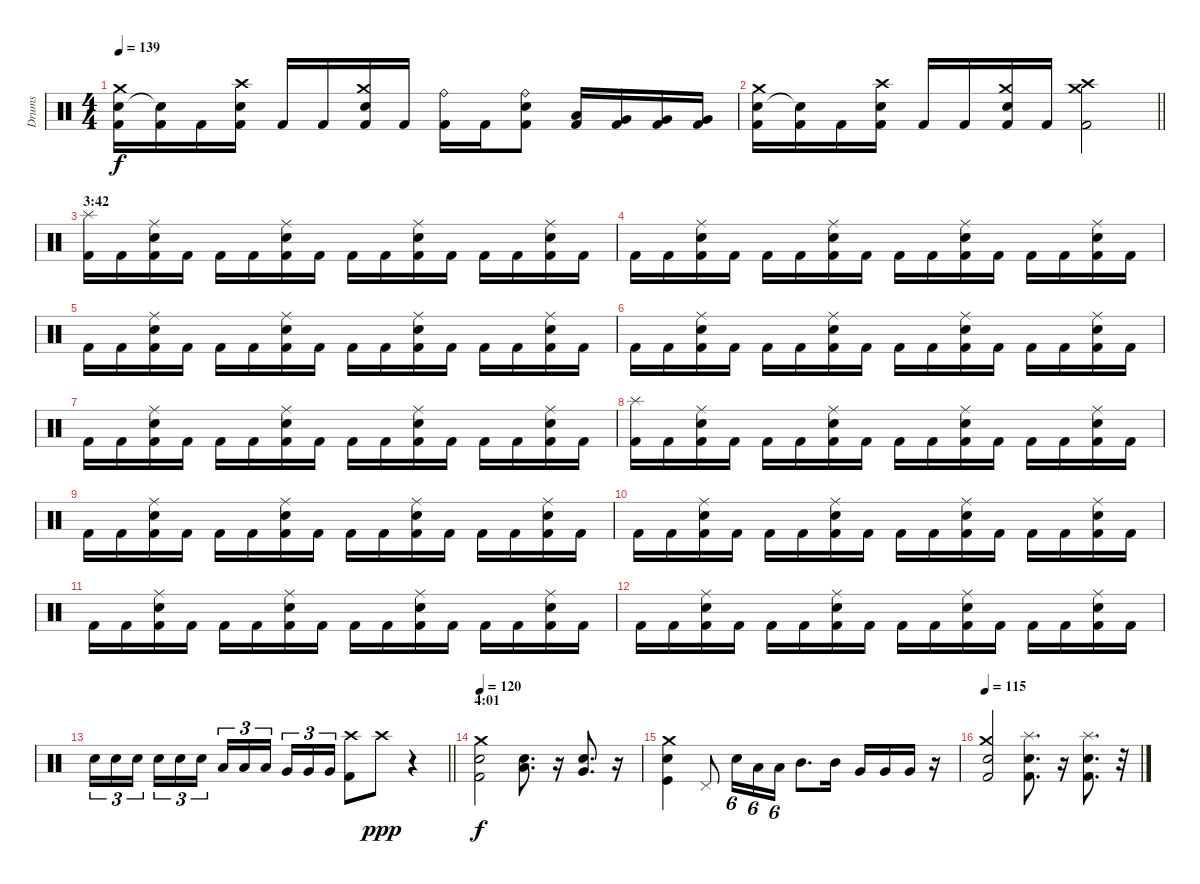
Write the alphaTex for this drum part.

\track ("Drums" "Drums") {instrument percussion}
\staff {score}
\articulation defaults
\ts (4 4)
\tempo 139
\clef neutral
\ks c
("Electric Snare (hit)" "Crash medium (hit)" "Kick (hit) 2").16{dy f} ("Snare (hit)"{t} "Kick (hit) 2").16 "Kick (hit) 2".16 ("Electric Snare (hit)" "Crash high (hit)" "Kick (hit) 2").16 "Kick (hit) 2".16 "Kick (hit) 2".16 ("Electric Snare (hit)" "Crash medium (hit)" "Kick (hit) 2").16 "Kick (hit) 2".16 ("Ride (bell)" "Kick (hit) 2").16 "Kick (hit) 2".16 ("Electric Snare (hit)" "Ride (bell)" "Kick (hit) 2").8 ("Low Tom (hit)" "Kick (hit) 2").16 ("Very Low Tom (hit)" "Kick (hit) 2").16 ("Very Low Tom (hit)" "Kick (hit) 2").16 ("Very Low Tom (hit)" "Kick (hit) 2").16 |
\barLineRight lightlight
("Electric Snare (hit)" "Crash medium (hit)" "Kick (hit) 2").16 ("Snare (hit)"{t} "Kick (hit) 2").16 "Kick (hit) 2".16 ("Electric Snare (hit)" "Crash high (hit)" "Kick (hit) 2").16 "Kick (hit) 2".16 "Kick (hit) 2".16 ("Electric Snare (hit)" "Crash medium (hit)" "Kick (hit) 2").16 "Kick (hit) 2".16 ("Crash high (hit)" "Crash medium (hit)" "Kick (hit) 2").2 |
\section ("" "3:42")
("Splash (hit)" "Kick (hit) 2").16 "Kick (hit) 2".16 ("Ride (middle)" "Electric Snare (hit)" "Kick (hit) 2").16 "Kick (hit) 2".16 "Kick (hit) 2".16 "Kick (hit) 2".16 ("Ride (middle)" "Electric Snare (hit)" "Kick (hit) 2").16 "Kick (hit) 2".16 "Kick (hit) 2".16 "Kick (hit) 2".16 ("Ride (middle)" "Electric Snare (hit)" "Kick (hit) 2").16 "Kick (hit) 2".16 "Kick (hit) 2".16 "Kick (hit) 2".16 ("Ride (middle)" "Electric Snare (hit)" "Kick (hit) 2").16 "Kick (hit) 2".16 |
"Kick (hit) 2".16 "Kick (hit) 2".16 ("Ride (middle)" "Electric Snare (hit)" "Kick (hit) 2").16 "Kick (hit) 2".16 "Kick (hit) 2".16 "Kick (hit) 2".16 ("Ride (middle)" "Electric Snare (hit)" "Kick (hit) 2").16 "Kick (hit) 2".16 "Kick (hit) 2".16 "Kick (hit) 2".16 ("Ride (middle)" "Electric Snare (hit)" "Kick (hit) 2").16 "Kick (hit) 2".16 "Kick (hit) 2".16 "Kick (hit) 2".16 ("Ride (middle)" "Electric Snare (hit)" "Kick (hit) 2").16 "Kick (hit) 2".16 |
"Kick (hit) 2".16 "Kick (hit) 2".16 ("Ride (middle)" "Electric Snare (hit)" "Kick (hit) 2").16 "Kick (hit) 2".16 "Kick (hit) 2".16 "Kick (hit) 2".16 ("Ride (middle)" "Electric Snare (hit)" "Kick (hit) 2").16 "Kick (hit) 2".16 "Kick (hit) 2".16 "Kick (hit) 2".16 ("Ride (middle)" "Electric Snare (hit)" "Kick (hit) 2").16 "Kick (hit) 2".16 "Kick (hit) 2".16 "Kick (hit) 2".16 ("Ride (middle)" "Electric Snare (hit)" "Kick (hit) 2").16 "Kick (hit) 2".16 |
"Kick (hit) 2".16 "Kick (hit) 2".16 ("Ride (middle)" "Electric Snare (hit)" "Kick (hit) 2").16 "Kick (hit) 2".16 "Kick (hit) 2".16 "Kick (hit) 2".16 ("Ride (middle)" "Electric Snare (hit)" "Kick (hit) 2").16 "Kick (hit) 2".16 "Kick (hit) 2".16 "Kick (hit) 2".16 ("Ride (middle)" "Electric Snare (hit)" "Kick (hit) 2").16 "Kick (hit) 2".16 "Kick (hit) 2".16 "Kick (hit) 2".16 ("Ride (middle)" "Electric Snare (hit)" "Kick (hit) 2").16 "Kick (hit) 2".16 |
"Kick (hit) 2".16 "Kick (hit) 2".16 ("Ride (middle)" "Electric Snare (hit)" "Kick (hit) 2").16 "Kick (hit) 2".16 "Kick (hit) 2".16 "Kick (hit) 2".16 ("Ride (middle)" "Electric Snare (hit)" "Kick (hit) 2").16 "Kick (hit) 2".16 "Kick (hit) 2".16 "Kick (hit) 2".16 ("Ride (middle)" "Electric Snare (hit)" "Kick (hit) 2").16 "Kick (hit) 2".16 "Kick (hit) 2".16 "Kick (hit) 2".16 ("Ride (middle)" "Electric Snare (hit)" "Kick (hit) 2").16 "Kick (hit) 2".16 |
("Splash (hit)" "Kick (hit) 2").16 "Kick (hit) 2".16 ("Ride (middle)" "Electric Snare (hit)" "Kick (hit) 2").16 "Kick (hit) 2".16 "Kick (hit) 2".16 "Kick (hit) 2".16 ("Ride (middle)" "Electric Snare (hit)" "Kick (hit) 2").16 "Kick (hit) 2".16 "Kick (hit) 2".16 "Kick (hit) 2".16 ("Ride (middle)" "Electric Snare (hit)" "Kick (hit) 2").16 "Kick (hit) 2".16 "Kick (hit) 2".16 "Kick (hit) 2".16 ("Ride (middle)" "Electric Snare (hit)" "Kick (hit) 2").16 "Kick (hit) 2".16 |
"Kick (hit) 2".16 "Kick (hit) 2".16 ("Ride (middle)" "Electric Snare (hit)" "Kick (hit) 2").16 "Kick (hit) 2".16 "Kick (hit) 2".16 "Kick (hit) 2".16 ("Ride (middle)" "Electric Snare (hit)" "Kick (hit) 2").16 "Kick (hit) 2".16 "Kick (hit) 2".16 "Kick (hit) 2".16 ("Ride (middle)" "Electric Snare (hit)" "Kick (hit) 2").16 "Kick (hit) 2".16 "Kick (hit) 2".16 "Kick (hit) 2".16 ("Ride (middle)" "Electric Snare (hit)" "Kick (hit) 2").16 "Kick (hit) 2".16 |
"Kick (hit) 2".16 "Kick (hit) 2".16 ("Ride (middle)" "Electric Snare (hit)" "Kick (hit) 2").16 "Kick (hit) 2".16 "Kick (hit) 2".16 "Kick (hit) 2".16 ("Ride (middle)" "Electric Snare (hit)" "Kick (hit) 2").16 "Kick (hit) 2".16 "Kick (hit) 2".16 "Kick (hit) 2".16 ("Ride (middle)" "Electric Snare (hit)" "Kick (hit) 2").16 "Kick (hit) 2".16 "Kick (hit) 2".16 "Kick (hit) 2".16 ("Ride (middle)" "Electric Snare (hit)" "Kick (hit) 2").16 "Kick (hit) 2".16 |
"Kick (hit) 2".16 "Kick (hit) 2".16 ("Ride (middle)" "Electric Snare (hit)" "Kick (hit) 2").16 "Kick (hit) 2".16 "Kick (hit) 2".16 "Kick (hit) 2".16 ("Ride (middle)" "Electric Snare (hit)" "Kick (hit) 2").16 "Kick (hit) 2".16 "Kick (hit) 2".16 "Kick (hit) 2".16 ("Ride (middle)" "Electric Snare (hit)" "Kick (hit) 2").16 "Kick (hit) 2".16 "Kick (hit) 2".16 "Kick (hit) 2".16 ("Ride (middle)" "Electric Snare (hit)" "Kick (hit) 2").16 "Kick (hit) 2".16 |
"Kick (hit) 2".16 "Kick (hit) 2".16 ("Ride (middle)" "Electric Snare (hit)" "Kick (hit) 2").16 "Kick (hit) 2".16 "Kick (hit) 2".16 "Kick (hit) 2".16 ("Ride (middle)" "Electric Snare (hit)" "Kick (hit) 2").16 "Kick (hit) 2".16 "Kick (hit) 2".16 "Kick (hit) 2".16 ("Ride (middle)" "Electric Snare (hit)" "Kick (hit) 2").16 "Kick (hit) 2".16 "Kick (hit) 2".16 "Kick (hit) 2".16 ("Ride (middle)" "Electric Snare (hit)" "Kick (hit) 2").16 "Kick (hit) 2".16 |
\barLineRight lightlight "Electric Snare (hit)".16{tu (3 2)} "Electric Snare (hit)".16{tu (3 2)} "Electric Snare (hit)".16{tu (3 2) beam splitsecondary} "Electric Snare (hit)".16{tu (3 2)} "Electric Snare (hit)".16{tu (3 2)} "Electric Snare (hit)".16{tu (3 2)} "Low Tom (hit)".16{tu (3 2)} "Low Tom (hit)".16{tu (3 2)} "Low Tom (hit)".16{tu (3 2) beam splitsecondary} "Very Low Tom (hit)".16{tu (3 2)} "Very Low Tom (hit)".16{tu (3 2)} "Very Low Tom (hit)".16{tu (3 2)}
("Crash high (hit)" "Kick (hit) 2").8 "Crash high (hit)".8{dy ppp} r.4 |
\section ("" "4:01")
\tempo 120
("Crash medium (hit)" "Kick (hit) 2" "Snare (hit) 2").2{dy f} ("Low Tom (hit)" "Snare (hit) 2").8{d} r.16 ("Very Low Tom (hit)" "Snare (hit) 2").8{d} r.16 |
("Crash medium (hit)" "Snare (hit) 2" "Kick (hit)").4 "Pedal Hi-Hat (hit)".8 "Electric Snare (hit)".16{tu (6 4)} "Low Tom (hit)".16{tu (6 4)} "Low Tom (hit)".16{tu (6 4)} "Mid Tom (hit)".8{d} "Mid Tom (hit)".16 "Very Low Tom (hit)".16 "Very Low Tom (hit)".16 "Very Low Tom (hit)".16 r.16 |
\tempo 115
("Crash medium (hit)" "Electric Snare (hit)" "Kick (hit) 2").2 ("Kick (hit) 2" "Splash (hit)" "Snare (hit) 2").8{d} r.16 ("Splash (hit)" "Snare (hit) 2" "Kick (hit) 2").8{d} r.32
